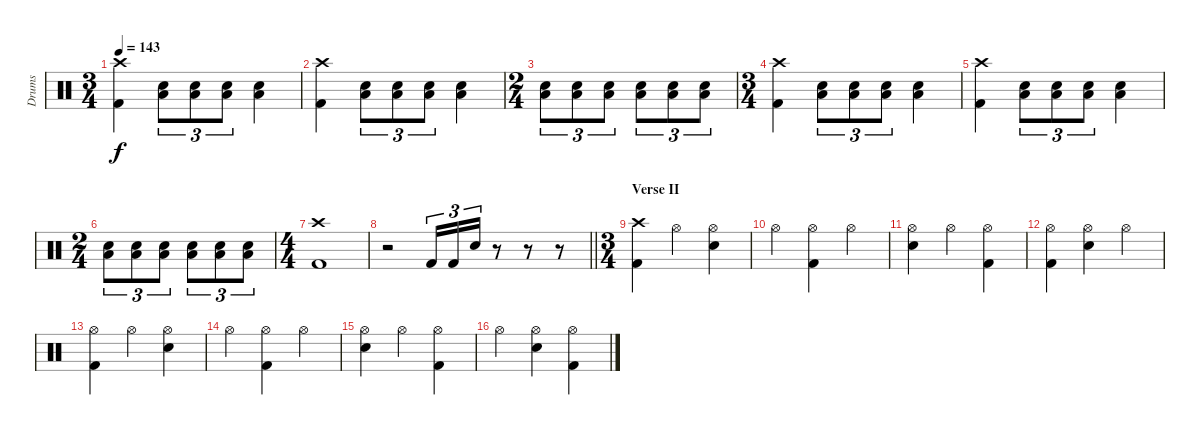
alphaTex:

\track ("Drums" "Drums") {instrument percussion}
\staff {score}
\articulation defaults
\ts (3 4)
\tempo 143
\clef neutral
\ks c
("Crash high (hit)" "Kick (hit) 2").4{dy f} ("Electric Snare (hit)" "Low Floor Tom (hit)").8{tu (3 2)} ("Electric Snare (hit)" "Low Floor Tom (hit)").8{tu (3 2)} ("Electric Snare (hit)" "Low Floor Tom (hit)").8{tu (3 2)} ("Electric Snare (hit)" "Low Floor Tom (hit)").4 |
("Crash high (hit)" "Kick (hit) 2").4 ("Electric Snare (hit)" "Low Floor Tom (hit)").8{tu (3 2)} ("Electric Snare (hit)" "Low Floor Tom (hit)").8{tu (3 2)} ("Electric Snare (hit)" "Low Floor Tom (hit)").8{tu (3 2)} ("Electric Snare (hit)" "Low Floor Tom (hit)").4 |
\ts (2 4)
("Electric Snare (hit)" "Low Floor Tom (hit)").8{tu (3 2)} ("Electric Snare (hit)" "Low Floor Tom (hit)").8{tu (3 2)} ("Electric Snare (hit)" "Low Floor Tom (hit)").8{tu (3 2)} ("Electric Snare (hit)" "Low Floor Tom (hit)").8{tu (3 2)} ("Electric Snare (hit)" "Low Floor Tom (hit)").8{tu (3 2)} ("Electric Snare (hit)" "Low Floor Tom (hit)").8{tu (3 2)} |
\ts (3 4)
("Crash high (hit)" "Kick (hit) 2").4 ("Electric Snare (hit)" "Low Floor Tom (hit)").8{tu (3 2)} ("Electric Snare (hit)" "Low Floor Tom (hit)").8{tu (3 2)} ("Electric Snare (hit)" "Low Floor Tom (hit)").8{tu (3 2)} ("Electric Snare (hit)" "Low Floor Tom (hit)").4 |
("Crash high (hit)" "Kick (hit) 2").4 ("Electric Snare (hit)" "Low Floor Tom (hit)").8{tu (3 2)} ("Electric Snare (hit)" "Low Floor Tom (hit)").8{tu (3 2)} ("Electric Snare (hit)" "Low Floor Tom (hit)").8{tu (3 2)} ("Electric Snare (hit)" "Low Floor Tom (hit)").4 |
\ts (2 4)
("Electric Snare (hit)" "Low Floor Tom (hit)").8{tu (3 2)} ("Electric Snare (hit)" "Low Floor Tom (hit)").8{tu (3 2)} ("Electric Snare (hit)" "Low Floor Tom (hit)").8{tu (3 2)} ("Electric Snare (hit)" "Low Floor Tom (hit)").8{tu (3 2)} ("Electric Snare (hit)" "Low Floor Tom (hit)").8{tu (3 2)} ("Electric Snare (hit)" "Low Floor Tom (hit)").8{tu (3 2)} |
\ts (4 4)
("Crash high (hit)" "Kick (hit) 2").1 |
\barLineRight lightlight
r.2 "Kick (hit) 2".16{tu (3 2)} "Kick (hit) 2".16{tu (3 2)} "Electric Snare (hit)".16{tu (3 2)} r.8 r.8 r.8 |
\ts (3 4)
\section ("" "Verse II")
("Crash high (hit)" "Kick (hit) 2").4 "Hi-Hat (open)".4 ("Hi-Hat (open)" "Electric Snare (hit)").4 |
"Hi-Hat (open)".4 ("Hi-Hat (open)" "Kick (hit) 2").4 "Hi-Hat (open)".4 |
("Hi-Hat (open)" "Electric Snare (hit)").4 "Hi-Hat (open)".4 ("Hi-Hat (open)" "Kick (hit) 2").4 |
("Hi-Hat (open)" "Kick (hit) 2").4 ("Hi-Hat (open)" "Electric Snare (hit)").4 "Hi-Hat (open)".4 |
("Hi-Hat (open)" "Kick (hit) 2").4 "Hi-Hat (open)".4 ("Hi-Hat (open)" "Electric Snare (hit)").4 |
"Hi-Hat (open)".4 ("Hi-Hat (open)" "Kick (hit) 2").4 "Hi-Hat (open)".4 |
("Hi-Hat (open)" "Electric Snare (hit)").4 "Hi-Hat (open)".4 ("Hi-Hat (open)" "Kick (hit) 2").4 |
"Hi-Hat (open)".4 ("Hi-Hat (open)" "Electric Snare (hit)").4 ("Hi-Hat (open)" "Kick (hit) 2").4
